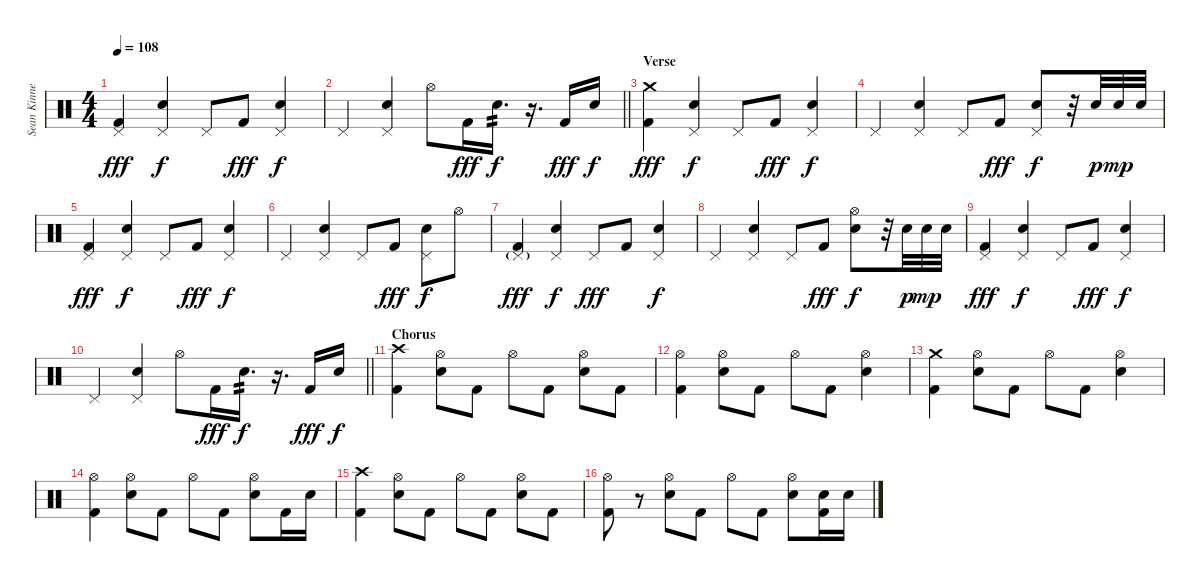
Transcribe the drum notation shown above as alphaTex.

\track ("Sean Kinney" "Sean Kinne") {instrument percussion}
\staff {score}
\articulation defaults
\ts (4 4)
\tempo 108
\clef neutral
\ks c
("Pedal Hi-Hat (hit)" "Kick (hit) 2").4{dy fff} ("Pedal Hi-Hat (hit)" "Snare (hit) 2").4{dy f} "Pedal Hi-Hat (hit)".8 "Kick (hit) 2".8{dy fff} ("Pedal Hi-Hat (hit)" "Snare (hit) 2").4{dy f} |
\barLineRight lightlight "Pedal Hi-Hat (hit)".4
("Pedal Hi-Hat (hit)" "Snare (hit) 2").4 "Hi-Hat (open)".8 "Kick (hit) 2".16{dy fff} "Snare (hit) 2".16{d tp 2 dy f} r.16{d} "Kick (hit) 2".16{dy fff} "Snare (hit) 2".16{dy f} |
\section ("" "Verse")
("Crash medium (hit)" "Kick (hit) 2").4{dy fff} ("Pedal Hi-Hat (hit)" "Snare (hit) 2").4{dy f} "Pedal Hi-Hat (hit)".8 "Kick (hit) 2".8{dy fff} ("Pedal Hi-Hat (hit)" "Snare (hit) 2").4{dy f} |
"Pedal Hi-Hat (hit)".4 ("Pedal Hi-Hat (hit)" "Snare (hit) 2").4 "Pedal Hi-Hat (hit)".8 "Kick (hit) 2".8{dy fff} ("Pedal Hi-Hat (hit)" "Snare (hit) 2").8{dy f} r.32 "Snare (hit) 2".32{dy p} "Snare (hit) 2".32{dy mp} "Snare (hit) 2".32 |
("Pedal Hi-Hat (hit)" "Kick (hit) 2").4{dy fff} ("Pedal Hi-Hat (hit)" "Snare (hit) 2").4{dy f} "Pedal Hi-Hat (hit)".8 "Kick (hit) 2".8{dy fff} ("Pedal Hi-Hat (hit)" "Snare (hit) 2").4{dy f} |
"Pedal Hi-Hat (hit)".4 ("Pedal Hi-Hat (hit)" "Snare (hit) 2").4 "Pedal Hi-Hat (hit)".8 "Kick (hit) 2".8{dy fff} ("Pedal Hi-Hat (hit)" "Snare (hit) 2").8{dy f} "Hi-Hat (open)".8 |
("Pedal Hi-Hat (hit)"{g} "Kick (hit) 2").4{dy fff} ("Pedal Hi-Hat (hit)" "Snare (hit) 2").4{dy f} "Pedal Hi-Hat (hit)".8{dy fff} "Kick (hit) 2".8 ("Pedal Hi-Hat (hit)" "Snare (hit) 2").4{dy f} |
"Pedal Hi-Hat (hit)".4 ("Pedal Hi-Hat (hit)" "Snare (hit) 2").4 "Pedal Hi-Hat (hit)".8 "Kick (hit) 2".8{dy fff} ("Hi-Hat (open)" "Snare (hit) 2").8{dy f} r.32 "Snare (hit) 2".32{dy p} "Snare (hit) 2".32{dy mp} "Snare (hit) 2".32 |
("Pedal Hi-Hat (hit)" "Kick (hit) 2").4{dy fff} ("Pedal Hi-Hat (hit)" "Snare (hit) 2").4{dy f} "Pedal Hi-Hat (hit)".8 "Kick (hit) 2".8{dy fff} ("Pedal Hi-Hat (hit)" "Snare (hit) 2").4{dy f} |
\barLineRight lightlight "Pedal Hi-Hat (hit)".4
("Pedal Hi-Hat (hit)" "Snare (hit) 2").4 "Hi-Hat (open)".8 "Kick (hit) 2".16{dy fff} "Snare (hit) 2".16{d tp 2 dy f} r.16{d} "Kick (hit) 2".16{dy fff} "Snare (hit) 2".16{dy f} |
\section ("" "Chorus")
("Crash high (hit)" "Kick (hit) 2").4 ("Hi-Hat (open)" "Snare (hit) 2").8 "Kick (hit) 2".8 "Hi-Hat (open)".8 "Kick (hit) 2".8 ("Hi-Hat (open)" "Snare (hit) 2").8 "Kick (hit) 2".8 |
("Hi-Hat (open)" "Kick (hit) 2").4 ("Hi-Hat (open)" "Snare (hit) 2").8 "Kick (hit) 2".8 "Hi-Hat (open)".8 "Kick (hit) 2".8 ("Hi-Hat (open)" "Snare (hit) 2").4 |
("Crash medium (hit)" "Kick (hit) 2").4 ("Hi-Hat (open)" "Snare (hit) 2").8 "Kick (hit) 2".8 "Hi-Hat (open)".8 "Kick (hit) 2".8 ("Hi-Hat (open)" "Snare (hit) 2").4 |
("Hi-Hat (open)" "Kick (hit) 2").4 ("Hi-Hat (open)" "Snare (hit) 2").8 "Kick (hit) 2".8 "Hi-Hat (open)".8 "Kick (hit) 2".8 ("Hi-Hat (open)" "Snare (hit) 2").8 "Kick (hit) 2".16 "Snare (hit) 2".16 |
("Crash high (hit)" "Kick (hit) 2").4 ("Hi-Hat (open)" "Snare (hit) 2").8 "Kick (hit) 2".8 "Hi-Hat (open)".8 "Kick (hit) 2".8 ("Hi-Hat (open)" "Snare (hit) 2").8 "Kick (hit) 2".8 |
("Hi-Hat (open)" "Kick (hit) 2").8 r.8 ("Hi-Hat (open)" "Snare (hit) 2").8 "Kick (hit) 2".8 "Hi-Hat (open)".8 "Kick (hit) 2".8 ("Hi-Hat (open)" "Snare (hit) 2").8 ("Snare (hit) 2" "Kick (hit) 2").16 "Snare (hit) 2".16
